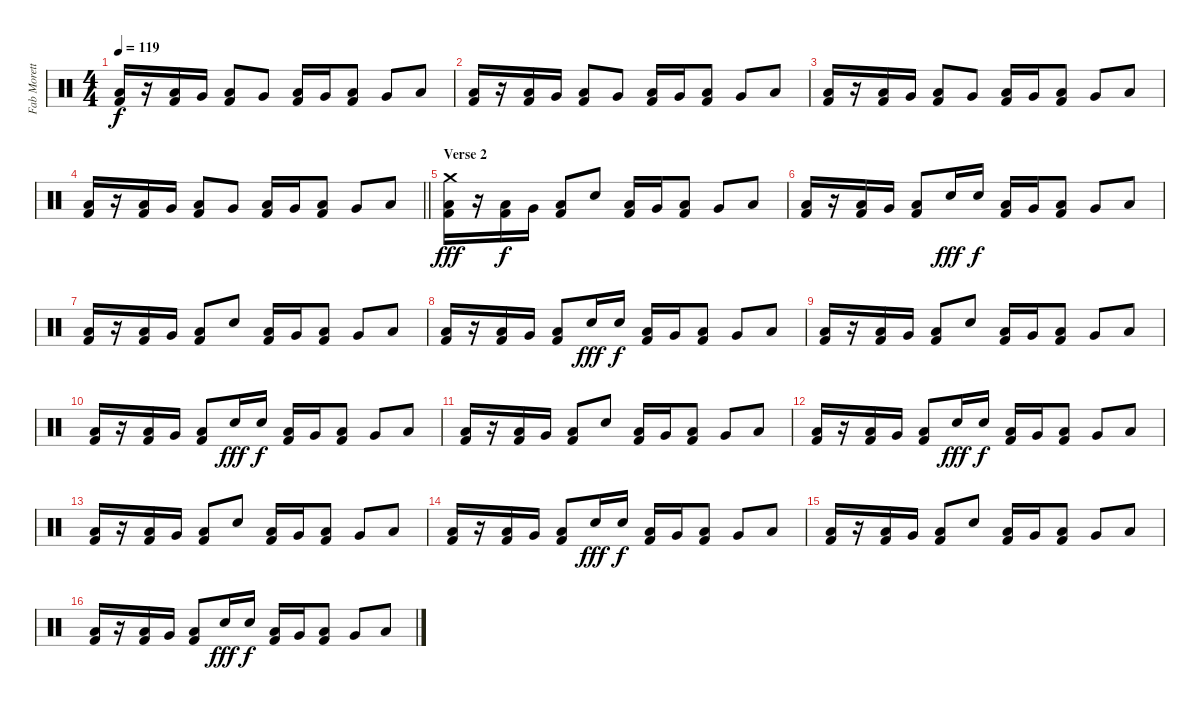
\track ("Fab Moretti" "Fab Morett") {instrument percussion}
\staff {score}
\articulation defaults
\ts (4 4)
\tempo 119
\clef neutral
\ks c
("Low Floor Tom (hit)" "Kick (hit) 2").16{dy f} r.16 ("Low Floor Tom (hit)" "Kick (hit) 2").16 "Very Low Tom (hit)".16 ("Low Floor Tom (hit)" "Kick (hit) 2").8 "Very Low Tom (hit)".8 ("Low Floor Tom (hit)" "Kick (hit) 2").16 "Very Low Tom (hit)".16 ("Low Floor Tom (hit)" "Kick (hit) 2").8 "Very Low Tom (hit)".8 "Low Floor Tom (hit)".8 |
("Low Floor Tom (hit)" "Kick (hit) 2").16 r.16 ("Low Floor Tom (hit)" "Kick (hit) 2").16 "Very Low Tom (hit)".16 ("Low Floor Tom (hit)" "Kick (hit) 2").8 "Very Low Tom (hit)".8 ("Low Floor Tom (hit)" "Kick (hit) 2").16 "Very Low Tom (hit)".16 ("Low Floor Tom (hit)" "Kick (hit) 2").8 "Very Low Tom (hit)".8 "Low Floor Tom (hit)".8 |
("Low Floor Tom (hit)" "Kick (hit) 2").16 r.16 ("Low Floor Tom (hit)" "Kick (hit) 2").16 "Very Low Tom (hit)".16 ("Low Floor Tom (hit)" "Kick (hit) 2").8 "Very Low Tom (hit)".8 ("Low Floor Tom (hit)" "Kick (hit) 2").16 "Very Low Tom (hit)".16 ("Low Floor Tom (hit)" "Kick (hit) 2").8 "Very Low Tom (hit)".8 "Low Floor Tom (hit)".8 |
\barLineRight lightlight
("Low Floor Tom (hit)" "Kick (hit) 2").16 r.16 ("Low Floor Tom (hit)" "Kick (hit) 2").16 "Very Low Tom (hit)".16 ("Low Floor Tom (hit)" "Kick (hit) 2").8 "Very Low Tom (hit)".8 ("Low Floor Tom (hit)" "Kick (hit) 2").16 "Very Low Tom (hit)".16 ("Low Floor Tom (hit)" "Kick (hit) 2").8 "Very Low Tom (hit)".8 "Low Floor Tom (hit)".8 |
\section ("" "Verse 2")
("Crash medium (hit)" "Low Floor Tom (hit)" "Kick (hit) 2").16{dy fff} r.16 ("Low Floor Tom (hit)" "Kick (hit) 2").16{dy f} "Very Low Tom (hit)".16 ("Low Floor Tom (hit)" "Kick (hit) 2").8 "Electric Snare (hit)".8 ("Low Floor Tom (hit)" "Kick (hit) 2").16 "Very Low Tom (hit)".16 ("Low Floor Tom (hit)" "Kick (hit) 2").8 "Very Low Tom (hit)".8 "Low Floor Tom (hit)".8 |
("Low Floor Tom (hit)" "Kick (hit) 2").16 r.16 ("Low Floor Tom (hit)" "Kick (hit) 2").16 "Very Low Tom (hit)".16 ("Low Floor Tom (hit)" "Kick (hit) 2").8 "Electric Snare (hit)".16{dy fff} "Electric Snare (hit)".16{dy f} ("Low Floor Tom (hit)" "Kick (hit) 2").16 "Very Low Tom (hit)".16 ("Low Floor Tom (hit)" "Kick (hit) 2").8 "Very Low Tom (hit)".8 "Low Floor Tom (hit)".8 |
("Low Floor Tom (hit)" "Kick (hit) 2").16 r.16 ("Low Floor Tom (hit)" "Kick (hit) 2").16 "Very Low Tom (hit)".16 ("Low Floor Tom (hit)" "Kick (hit) 2").8 "Electric Snare (hit)".8 ("Low Floor Tom (hit)" "Kick (hit) 2").16 "Very Low Tom (hit)".16 ("Low Floor Tom (hit)" "Kick (hit) 2").8 "Very Low Tom (hit)".8 "Low Floor Tom (hit)".8 |
("Low Floor Tom (hit)" "Kick (hit) 2").16 r.16 ("Low Floor Tom (hit)" "Kick (hit) 2").16 "Very Low Tom (hit)".16 ("Low Floor Tom (hit)" "Kick (hit) 2").8 "Electric Snare (hit)".16{dy fff} "Electric Snare (hit)".16{dy f} ("Low Floor Tom (hit)" "Kick (hit) 2").16 "Very Low Tom (hit)".16 ("Low Floor Tom (hit)" "Kick (hit) 2").8 "Very Low Tom (hit)".8 "Low Floor Tom (hit)".8 |
("Low Floor Tom (hit)" "Kick (hit) 2").16 r.16 ("Low Floor Tom (hit)" "Kick (hit) 2").16 "Very Low Tom (hit)".16 ("Low Floor Tom (hit)" "Kick (hit) 2").8 "Electric Snare (hit)".8 ("Low Floor Tom (hit)" "Kick (hit) 2").16 "Very Low Tom (hit)".16 ("Low Floor Tom (hit)" "Kick (hit) 2").8 "Very Low Tom (hit)".8 "Low Floor Tom (hit)".8 |
("Low Floor Tom (hit)" "Kick (hit) 2").16 r.16 ("Low Floor Tom (hit)" "Kick (hit) 2").16 "Very Low Tom (hit)".16 ("Low Floor Tom (hit)" "Kick (hit) 2").8 "Electric Snare (hit)".16{dy fff} "Electric Snare (hit)".16{dy f} ("Low Floor Tom (hit)" "Kick (hit) 2").16 "Very Low Tom (hit)".16 ("Low Floor Tom (hit)" "Kick (hit) 2").8 "Very Low Tom (hit)".8 "Low Floor Tom (hit)".8 |
("Low Floor Tom (hit)" "Kick (hit) 2").16 r.16 ("Low Floor Tom (hit)" "Kick (hit) 2").16 "Very Low Tom (hit)".16 ("Low Floor Tom (hit)" "Kick (hit) 2").8 "Electric Snare (hit)".8 ("Low Floor Tom (hit)" "Kick (hit) 2").16 "Very Low Tom (hit)".16 ("Low Floor Tom (hit)" "Kick (hit) 2").8 "Very Low Tom (hit)".8 "Low Floor Tom (hit)".8 |
("Low Floor Tom (hit)" "Kick (hit) 2").16 r.16 ("Low Floor Tom (hit)" "Kick (hit) 2").16 "Very Low Tom (hit)".16 ("Low Floor Tom (hit)" "Kick (hit) 2").8 "Electric Snare (hit)".16{dy fff} "Electric Snare (hit)".16{dy f} ("Low Floor Tom (hit)" "Kick (hit) 2").16 "Very Low Tom (hit)".16 ("Low Floor Tom (hit)" "Kick (hit) 2").8 "Very Low Tom (hit)".8 "Low Floor Tom (hit)".8 |
("Low Floor Tom (hit)" "Kick (hit) 2").16 r.16 ("Low Floor Tom (hit)" "Kick (hit) 2").16 "Very Low Tom (hit)".16 ("Low Floor Tom (hit)" "Kick (hit) 2").8 "Electric Snare (hit)".8 ("Low Floor Tom (hit)" "Kick (hit) 2").16 "Very Low Tom (hit)".16 ("Low Floor Tom (hit)" "Kick (hit) 2").8 "Very Low Tom (hit)".8 "Low Floor Tom (hit)".8 |
("Low Floor Tom (hit)" "Kick (hit) 2").16 r.16 ("Low Floor Tom (hit)" "Kick (hit) 2").16 "Very Low Tom (hit)".16 ("Low Floor Tom (hit)" "Kick (hit) 2").8 "Electric Snare (hit)".16{dy fff} "Electric Snare (hit)".16{dy f} ("Low Floor Tom (hit)" "Kick (hit) 2").16 "Very Low Tom (hit)".16 ("Low Floor Tom (hit)" "Kick (hit) 2").8 "Very Low Tom (hit)".8 "Low Floor Tom (hit)".8 |
("Low Floor Tom (hit)" "Kick (hit) 2").16 r.16 ("Low Floor Tom (hit)" "Kick (hit) 2").16 "Very Low Tom (hit)".16 ("Low Floor Tom (hit)" "Kick (hit) 2").8 "Electric Snare (hit)".8 ("Low Floor Tom (hit)" "Kick (hit) 2").16 "Very Low Tom (hit)".16 ("Low Floor Tom (hit)" "Kick (hit) 2").8 "Very Low Tom (hit)".8 "Low Floor Tom (hit)".8 |
("Low Floor Tom (hit)" "Kick (hit) 2").16 r.16 ("Low Floor Tom (hit)" "Kick (hit) 2").16 "Very Low Tom (hit)".16 ("Low Floor Tom (hit)" "Kick (hit) 2").8 "Electric Snare (hit)".16{dy fff} "Electric Snare (hit)".16{dy f} ("Low Floor Tom (hit)" "Kick (hit) 2").16 "Very Low Tom (hit)".16 ("Low Floor Tom (hit)" "Kick (hit) 2").8 "Very Low Tom (hit)".8 "Low Floor Tom (hit)".8
